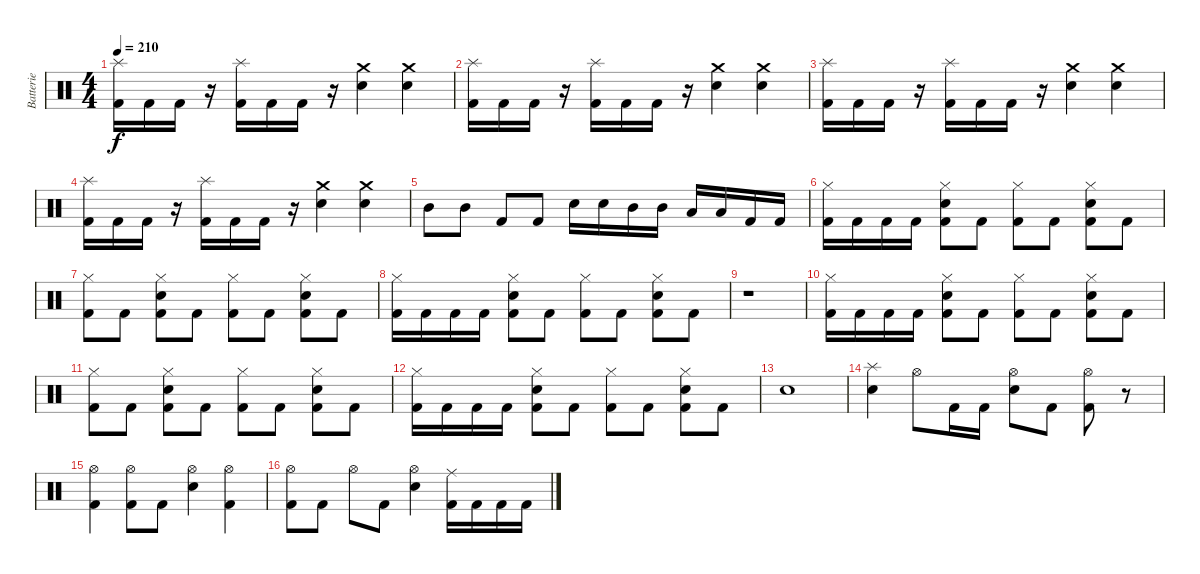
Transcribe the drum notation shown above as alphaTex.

\track ("Batterie" "Batterie") {instrument percussion}
\staff {score}
\articulation defaults
\ts (4 4)
\tempo 210
\clef neutral
\ks c
("Splash (hit)" "Kick (hit) 2").16{dy f} "Kick (hit) 2".16 "Kick (hit) 2".16 r.16 ("Splash (hit)" "Kick (hit) 2").16 "Kick (hit) 2".16 "Kick (hit) 2".16 r.16 ("Crash medium (hit)" "Electric Snare (hit)").4 ("Crash medium (hit)" "Electric Snare (hit)").4 |
("Splash (hit)" "Kick (hit) 2").16 "Kick (hit) 2".16 "Kick (hit) 2".16 r.16 ("Splash (hit)" "Kick (hit) 2").16 "Kick (hit) 2".16 "Kick (hit) 2".16 r.16 ("Crash medium (hit)" "Electric Snare (hit)").4 ("Crash medium (hit)" "Electric Snare (hit)").4 |
("Splash (hit)" "Kick (hit) 2").16 "Kick (hit) 2".16 "Kick (hit) 2".16 r.16 ("Splash (hit)" "Kick (hit) 2").16 "Kick (hit) 2".16 "Kick (hit) 2".16 r.16 ("Crash medium (hit)" "Electric Snare (hit)").4 ("Crash medium (hit)" "Electric Snare (hit)").4 |
("Splash (hit)" "Kick (hit) 2").16 "Kick (hit) 2".16 "Kick (hit) 2".16 r.16 ("Splash (hit)" "Kick (hit) 2").16 "Kick (hit) 2".16 "Kick (hit) 2".16 r.16 ("Crash medium (hit)" "Electric Snare (hit)").4 ("Crash medium (hit)" "Electric Snare (hit)").4 |
"Mid Tom (hit)".8 "Mid Tom (hit)".8 "Kick (hit) 2".8 "Kick (hit) 2".8 "Electric Snare (hit)".16 "Electric Snare (hit)".16 "Mid Tom (hit)".16 "Mid Tom (hit)".16 "Low Tom (hit)".16 "Low Tom (hit)".16 "Kick (hit) 2".16 "Kick (hit) 2".16 |
("Hi-Hat (closed)" "Kick (hit) 2").16 "Kick (hit) 2".16 "Kick (hit) 2".16 "Kick (hit) 2".16 ("Hi-Hat (closed)" "Electric Snare (hit)" "Kick (hit) 2").8 "Kick (hit) 2".8 ("Hi-Hat (closed)" "Kick (hit) 2").8 "Kick (hit) 2".8 ("Hi-Hat (closed)" "Electric Snare (hit)" "Kick (hit) 2").8 "Kick (hit) 2".8 |
("Hi-Hat (closed)" "Kick (hit) 2").8 "Kick (hit) 2".8 ("Hi-Hat (closed)" "Electric Snare (hit)" "Kick (hit) 2").8 "Kick (hit) 2".8 ("Hi-Hat (closed)" "Kick (hit) 2").8 "Kick (hit) 2".8 ("Hi-Hat (closed)" "Electric Snare (hit)" "Kick (hit) 2").8 "Kick (hit) 2".8 |
("Hi-Hat (closed)" "Kick (hit) 2").16 "Kick (hit) 2".16 "Kick (hit) 2".16 "Kick (hit) 2".16 ("Hi-Hat (closed)" "Electric Snare (hit)" "Kick (hit) 2").8 "Kick (hit) 2".8 ("Hi-Hat (closed)" "Kick (hit) 2").8 "Kick (hit) 2".8 ("Hi-Hat (closed)" "Electric Snare (hit)" "Kick (hit) 2").8 "Kick (hit) 2".8 |
r.1 |
("Hi-Hat (closed)" "Kick (hit) 2").16 "Kick (hit) 2".16 "Kick (hit) 2".16 "Kick (hit) 2".16 ("Hi-Hat (closed)" "Electric Snare (hit)" "Kick (hit) 2").8 "Kick (hit) 2".8 ("Hi-Hat (closed)" "Kick (hit) 2").8 "Kick (hit) 2".8 ("Hi-Hat (closed)" "Electric Snare (hit)" "Kick (hit) 2").8 "Kick (hit) 2".8 |
("Hi-Hat (closed)" "Kick (hit) 2").8 "Kick (hit) 2".8 ("Hi-Hat (closed)" "Electric Snare (hit)" "Kick (hit) 2").8 "Kick (hit) 2".8 ("Hi-Hat (closed)" "Kick (hit) 2").8 "Kick (hit) 2".8 ("Hi-Hat (closed)" "Electric Snare (hit)" "Kick (hit) 2").8 "Kick (hit) 2".8 |
("Hi-Hat (closed)" "Kick (hit) 2").16 "Kick (hit) 2".16 "Kick (hit) 2".16 "Kick (hit) 2".16 ("Hi-Hat (closed)" "Electric Snare (hit)" "Kick (hit) 2").8 "Kick (hit) 2".8 ("Hi-Hat (closed)" "Kick (hit) 2").8 "Kick (hit) 2".8 ("Hi-Hat (closed)" "Electric Snare (hit)" "Kick (hit) 2").8 "Kick (hit) 2".8 |
"Electric Snare (hit)".1 |
("Splash (hit)" "Electric Snare (hit)").4 "Hi-Hat (open)".8 "Kick (hit) 2".16 "Kick (hit) 2".16 ("Hi-Hat (open)" "Electric Snare (hit)").8 "Kick (hit) 2".8 ("Hi-Hat (open)" "Kick (hit) 2").8 r.8 |
("Hi-Hat (open)" "Kick (hit) 2").4 ("Hi-Hat (open)" "Kick (hit) 2").8 "Kick (hit) 2".8 ("Hi-Hat (open)" "Electric Snare (hit)").4 ("Hi-Hat (open)" "Kick (hit) 2").4 |
("Hi-Hat (open)" "Kick (hit) 2").8 "Kick (hit) 2".8 "Hi-Hat (open)".8 "Kick (hit) 2".8 ("Hi-Hat (open)" "Electric Snare (hit)").4 ("Ride (middle)" "Kick (hit) 2").16 "Kick (hit) 2".16 "Kick (hit) 2".16 "Kick (hit) 2".16
